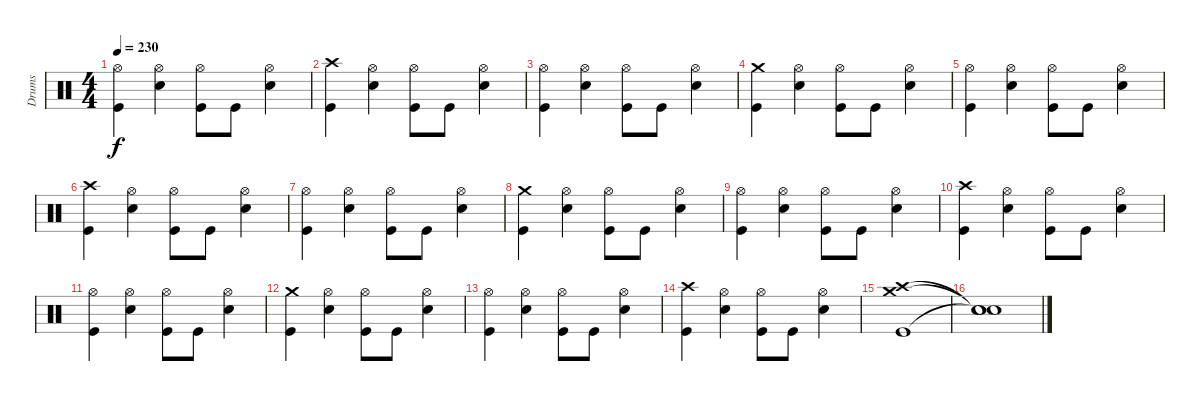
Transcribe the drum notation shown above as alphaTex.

\track ("Drums" "Drums") {instrument percussion}
\staff {score}
\articulation defaults
\ts (4 4)
\tempo 230
\clef neutral
\ks c
("Hi-Hat (open)" "Kick (hit)").4{dy f} ("Hi-Hat (open)" "Snare (hit) 2").4 ("Hi-Hat (open)" "Kick (hit)").8 "Kick (hit)".8 ("Hi-Hat (open)" "Snare (hit) 2").4 |
("Crash high (hit)" "Kick (hit)").4 ("Hi-Hat (open)" "Snare (hit) 2").4 ("Hi-Hat (open)" "Kick (hit)").8 "Kick (hit)".8 ("Hi-Hat (open)" "Snare (hit) 2").4 |
("Hi-Hat (open)" "Kick (hit)").4 ("Hi-Hat (open)" "Snare (hit) 2").4 ("Hi-Hat (open)" "Kick (hit)").8 "Kick (hit)".8 ("Hi-Hat (open)" "Snare (hit) 2").4 |
("Crash medium (hit)" "Kick (hit)").4 ("Hi-Hat (open)" "Snare (hit) 2").4 ("Hi-Hat (open)" "Kick (hit)").8 "Kick (hit)".8 ("Hi-Hat (open)" "Snare (hit) 2").4 |
("Hi-Hat (open)" "Kick (hit)").4 ("Hi-Hat (open)" "Snare (hit) 2").4 ("Hi-Hat (open)" "Kick (hit)").8 "Kick (hit)".8 ("Hi-Hat (open)" "Snare (hit) 2").4 |
("Crash high (hit)" "Kick (hit)").4 ("Hi-Hat (open)" "Snare (hit) 2").4 ("Hi-Hat (open)" "Kick (hit)").8 "Kick (hit)".8 ("Hi-Hat (open)" "Snare (hit) 2").4 |
("Hi-Hat (open)" "Kick (hit)").4 ("Hi-Hat (open)" "Snare (hit) 2").4 ("Hi-Hat (open)" "Kick (hit)").8 "Kick (hit)".8 ("Hi-Hat (open)" "Snare (hit) 2").4 |
("Crash medium (hit)" "Kick (hit)").4 ("Hi-Hat (open)" "Snare (hit) 2").4 ("Hi-Hat (open)" "Kick (hit)").8 "Kick (hit)".8 ("Hi-Hat (open)" "Snare (hit) 2").4 |
("Hi-Hat (open)" "Kick (hit)").4 ("Hi-Hat (open)" "Snare (hit) 2").4 ("Hi-Hat (open)" "Kick (hit)").8 "Kick (hit)".8 ("Hi-Hat (open)" "Snare (hit) 2").4 |
("Crash high (hit)" "Kick (hit)").4 ("Hi-Hat (open)" "Snare (hit) 2").4 ("Hi-Hat (open)" "Kick (hit)").8 "Kick (hit)".8 ("Hi-Hat (open)" "Snare (hit) 2").4 |
("Hi-Hat (open)" "Kick (hit)").4 ("Hi-Hat (open)" "Snare (hit) 2").4 ("Hi-Hat (open)" "Kick (hit)").8 "Kick (hit)".8 ("Hi-Hat (open)" "Snare (hit) 2").4 |
("Crash medium (hit)" "Kick (hit)").4 ("Hi-Hat (open)" "Snare (hit) 2").4 ("Hi-Hat (open)" "Kick (hit)").8 "Kick (hit)".8 ("Hi-Hat (open)" "Snare (hit) 2").4 |
("Hi-Hat (open)" "Kick (hit)").4 ("Hi-Hat (open)" "Snare (hit) 2").4 ("Hi-Hat (open)" "Kick (hit)").8 "Kick (hit)".8 ("Hi-Hat (open)" "Snare (hit) 2").4 |
("Crash high (hit)" "Kick (hit)").4 ("Hi-Hat (open)" "Snare (hit) 2").4 ("Hi-Hat (open)" "Kick (hit)").8 "Kick (hit)".8 ("Hi-Hat (open)" "Snare (hit) 2").4 |
("Crash high (hit)" "Crash medium (hit)" "Kick (hit)").1 |
("Snare (hit)"{t} "Snare (hit)"{t} "Snare (hit)"{t}).1
